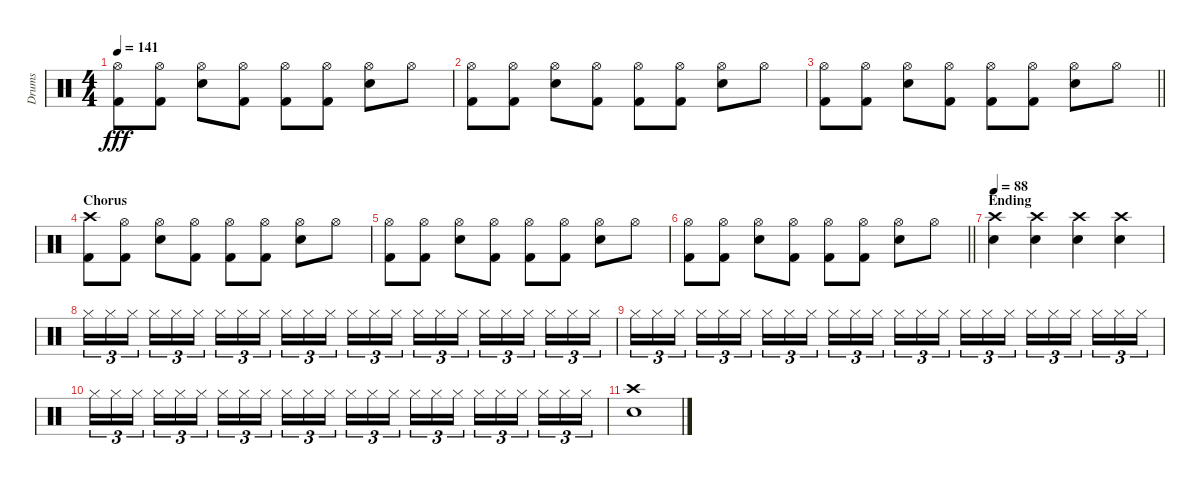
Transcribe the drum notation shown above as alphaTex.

\track ("Drums" "Drums") {instrument percussion}
\staff {score}
\articulation defaults
\ts (4 4)
\tempo 141
\clef neutral
\ks c
("Hi-Hat (open)" "Kick (hit) 2").8{dy fff} ("Hi-Hat (open)" "Kick (hit) 2").8 ("Hi-Hat (open)" "Electric Snare (hit)").8 ("Hi-Hat (open)" "Kick (hit) 2").8 ("Hi-Hat (open)" "Kick (hit) 2").8 ("Hi-Hat (open)" "Kick (hit) 2").8 ("Hi-Hat (open)" "Electric Snare (hit)").8 "Hi-Hat (open)".8 |
("Hi-Hat (open)" "Kick (hit) 2").8 ("Hi-Hat (open)" "Kick (hit) 2").8 ("Hi-Hat (open)" "Electric Snare (hit)").8 ("Hi-Hat (open)" "Kick (hit) 2").8 ("Hi-Hat (open)" "Kick (hit) 2").8 ("Hi-Hat (open)" "Kick (hit) 2").8 ("Hi-Hat (open)" "Electric Snare (hit)").8 "Hi-Hat (open)".8 |
\barLineRight lightlight
("Hi-Hat (open)" "Kick (hit) 2").8 ("Hi-Hat (open)" "Kick (hit) 2").8 ("Hi-Hat (open)" "Electric Snare (hit)").8 ("Hi-Hat (open)" "Kick (hit) 2").8 ("Hi-Hat (open)" "Kick (hit) 2").8 ("Hi-Hat (open)" "Kick (hit) 2").8 ("Hi-Hat (open)" "Electric Snare (hit)").8 "Hi-Hat (open)".8 |
\section ("" "Chorus")
("Crash high (hit)" "Kick (hit) 2").8 ("Hi-Hat (open)" "Kick (hit) 2").8 ("Hi-Hat (open)" "Electric Snare (hit)").8 ("Hi-Hat (open)" "Kick (hit) 2").8 ("Hi-Hat (open)" "Kick (hit) 2").8 ("Hi-Hat (open)" "Kick (hit) 2").8 ("Hi-Hat (open)" "Electric Snare (hit)").8 "Hi-Hat (open)".8 |
("Hi-Hat (open)" "Kick (hit) 2").8 ("Hi-Hat (open)" "Kick (hit) 2").8 ("Hi-Hat (open)" "Electric Snare (hit)").8 ("Hi-Hat (open)" "Kick (hit) 2").8 ("Hi-Hat (open)" "Kick (hit) 2").8 ("Hi-Hat (open)" "Kick (hit) 2").8 ("Hi-Hat (open)" "Electric Snare (hit)").8 "Hi-Hat (open)".8 |
\barLineRight lightlight
("Hi-Hat (open)" "Kick (hit) 2").8 ("Hi-Hat (open)" "Kick (hit) 2").8 ("Hi-Hat (open)" "Electric Snare (hit)").8 ("Hi-Hat (open)" "Kick (hit) 2").8 ("Hi-Hat (open)" "Kick (hit) 2").8 ("Hi-Hat (open)" "Kick (hit) 2").8 ("Hi-Hat (open)" "Electric Snare (hit)").8 "Hi-Hat (open)".8 |
\section ("" "Ending")
\tempo 88
("Crash high (hit)" "Electric Snare (hit)").4 ("Crash high (hit)" "Electric Snare (hit)").4 ("Crash high (hit)" "Electric Snare (hit)").4 ("Crash high (hit)" "Electric Snare (hit)").4 |
"Hi-Hat (closed)".16{tu (3 2)} "Hi-Hat (closed)".16{tu (3 2)} "Hi-Hat (closed)".16{tu (3 2) beam splitsecondary} "Hi-Hat (closed)".16{tu (3 2)} "Hi-Hat (closed)".16{tu (3 2)} "Hi-Hat (closed)".16{tu (3 2)} "Hi-Hat (closed)".16{tu (3 2)} "Hi-Hat (closed)".16{tu (3 2)} "Hi-Hat (closed)".16{tu (3 2) beam splitsecondary} "Hi-Hat (closed)".16{tu (3 2)} "Hi-Hat (closed)".16{tu (3 2)} "Hi-Hat (closed)".16{tu (3 2)} "Hi-Hat (closed)".16{tu (3 2)} "Hi-Hat (closed)".16{tu (3 2)} "Hi-Hat (closed)".16{tu (3 2) beam splitsecondary} "Hi-Hat (closed)".16{tu (3 2)} "Hi-Hat (closed)".16{tu (3 2)} "Hi-Hat (closed)".16{tu (3 2)} "Hi-Hat (closed)".16{tu (3 2)} "Hi-Hat (closed)".16{tu (3 2)} "Hi-Hat (closed)".16{tu (3 2) beam splitsecondary} "Hi-Hat (closed)".16{tu (3 2)} "Hi-Hat (closed)".16{tu (3 2)} "Hi-Hat (closed)".16{tu (3 2)} |
"Hi-Hat (closed)".16{tu (3 2)} "Hi-Hat (closed)".16{tu (3 2)} "Hi-Hat (closed)".16{tu (3 2) beam splitsecondary} "Hi-Hat (closed)".16{tu (3 2)} "Hi-Hat (closed)".16{tu (3 2)} "Hi-Hat (closed)".16{tu (3 2)} "Hi-Hat (closed)".16{tu (3 2)} "Hi-Hat (closed)".16{tu (3 2)} "Hi-Hat (closed)".16{tu (3 2) beam splitsecondary} "Hi-Hat (closed)".16{tu (3 2)} "Hi-Hat (closed)".16{tu (3 2)} "Hi-Hat (closed)".16{tu (3 2)} "Hi-Hat (closed)".16{tu (3 2)} "Hi-Hat (closed)".16{tu (3 2)} "Hi-Hat (closed)".16{tu (3 2) beam splitsecondary} "Hi-Hat (closed)".16{tu (3 2)} "Hi-Hat (closed)".16{tu (3 2)} "Hi-Hat (closed)".16{tu (3 2)} "Hi-Hat (closed)".16{tu (3 2)} "Hi-Hat (closed)".16{tu (3 2)} "Hi-Hat (closed)".16{tu (3 2) beam splitsecondary} "Hi-Hat (closed)".16{tu (3 2)} "Hi-Hat (closed)".16{tu (3 2)} "Hi-Hat (closed)".16{tu (3 2)} |
"Hi-Hat (closed)".16{tu (3 2)} "Hi-Hat (closed)".16{tu (3 2)} "Hi-Hat (closed)".16{tu (3 2) beam splitsecondary} "Hi-Hat (closed)".16{tu (3 2)} "Hi-Hat (closed)".16{tu (3 2)} "Hi-Hat (closed)".16{tu (3 2)} "Hi-Hat (closed)".16{tu (3 2)} "Hi-Hat (closed)".16{tu (3 2)} "Hi-Hat (closed)".16{tu (3 2) beam splitsecondary} "Hi-Hat (closed)".16{tu (3 2)} "Hi-Hat (closed)".16{tu (3 2)} "Hi-Hat (closed)".16{tu (3 2)} "Hi-Hat (closed)".16{tu (3 2)} "Hi-Hat (closed)".16{tu (3 2)} "Hi-Hat (closed)".16{tu (3 2) beam splitsecondary} "Hi-Hat (closed)".16{tu (3 2)} "Hi-Hat (closed)".16{tu (3 2)} "Hi-Hat (closed)".16{tu (3 2)} "Hi-Hat (closed)".16{tu (3 2)} "Hi-Hat (closed)".16{tu (3 2)} "Hi-Hat (closed)".16{tu (3 2) beam splitsecondary} "Hi-Hat (closed)".16{tu (3 2)} "Hi-Hat (closed)".16{tu (3 2)} "Hi-Hat (closed)".16{tu (3 2)} |
("Crash high (hit)" "Electric Snare (hit)").1
